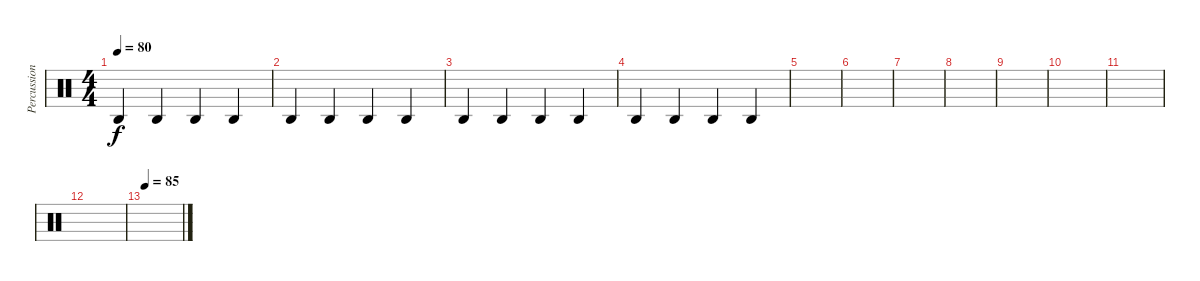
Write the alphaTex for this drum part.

\track ("Percussion" "Percussion") {instrument percussion}
\staff {score}
\articulation defaults
\ts (4 4)
\tempo 80
\clef neutral
\ks c "Agogo high (hit)".4{dy f} "Agogo high (hit)".4 "Agogo high (hit)".4 "Agogo high (hit)".4
|
"Agogo high (hit)".4 "Agogo high (hit)".4 "Agogo high (hit)".4 "Agogo high (hit)".4 |
"Agogo high (hit)".4 "Agogo high (hit)".4 "Agogo high (hit)".4 "Agogo high (hit)".4 |
"Agogo high (hit)".4 "Agogo high (hit)".4 "Agogo high (hit)".4 "Agogo high (hit)".4 |
|
|
|
|
|
|
|
|
\tempo 85
